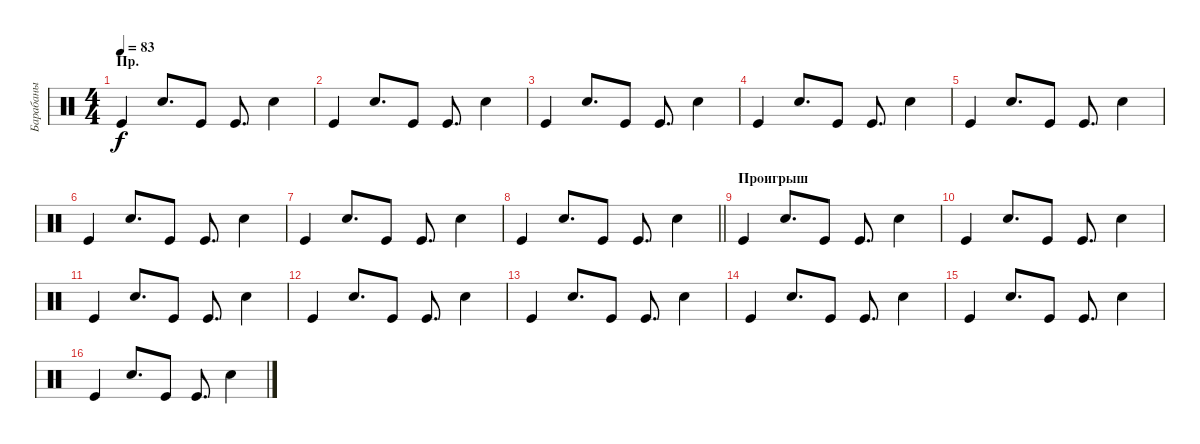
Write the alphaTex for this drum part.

\track ("Барабаны" "Барабаны") {instrument percussion}
\staff {score}
\articulation defaults
\ts (4 4)
\section ("" "Пр.")
\tempo 83
\clef neutral
\ks c "Kick (hit)".4{dy f} "Snare (hit) 2".8{d} "Kick (hit)".8 "Kick (hit)".8{d} "Snare (hit) 2".4
|
"Kick (hit)".4 "Snare (hit) 2".8{d} "Kick (hit)".8 "Kick (hit)".8{d} "Snare (hit) 2".4 |
"Kick (hit)".4 "Snare (hit) 2".8{d} "Kick (hit)".8 "Kick (hit)".8{d} "Snare (hit) 2".4 |
"Kick (hit)".4 "Snare (hit) 2".8{d} "Kick (hit)".8 "Kick (hit)".8{d} "Snare (hit) 2".4 |
"Kick (hit)".4 "Snare (hit) 2".8{d} "Kick (hit)".8 "Kick (hit)".8{d} "Snare (hit) 2".4 |
"Kick (hit)".4 "Snare (hit) 2".8{d} "Kick (hit)".8 "Kick (hit)".8{d} "Snare (hit) 2".4 |
"Kick (hit)".4 "Snare (hit) 2".8{d} "Kick (hit)".8 "Kick (hit)".8{d} "Snare (hit) 2".4 |
\barLineRight lightlight "Kick (hit)".4 "Snare (hit) 2".8{d} "Kick (hit)".8 "Kick (hit)".8{d} "Snare (hit) 2".4
|
\section ("" "Проигрыш")
"Kick (hit)".4 "Snare (hit) 2".8{d} "Kick (hit)".8 "Kick (hit)".8{d} "Snare (hit) 2".4 |
"Kick (hit)".4 "Snare (hit) 2".8{d} "Kick (hit)".8 "Kick (hit)".8{d} "Snare (hit) 2".4 |
"Kick (hit)".4 "Snare (hit) 2".8{d} "Kick (hit)".8 "Kick (hit)".8{d} "Snare (hit) 2".4 |
"Kick (hit)".4 "Snare (hit) 2".8{d} "Kick (hit)".8 "Kick (hit)".8{d} "Snare (hit) 2".4 |
"Kick (hit)".4 "Snare (hit) 2".8{d} "Kick (hit)".8 "Kick (hit)".8{d} "Snare (hit) 2".4 |
"Kick (hit)".4 "Snare (hit) 2".8{d} "Kick (hit)".8 "Kick (hit)".8{d} "Snare (hit) 2".4 |
"Kick (hit)".4 "Snare (hit) 2".8{d} "Kick (hit)".8 "Kick (hit)".8{d} "Snare (hit) 2".4 |
"Kick (hit)".4 "Snare (hit) 2".8{d} "Kick (hit)".8 "Kick (hit)".8{d} "Snare (hit) 2".4
